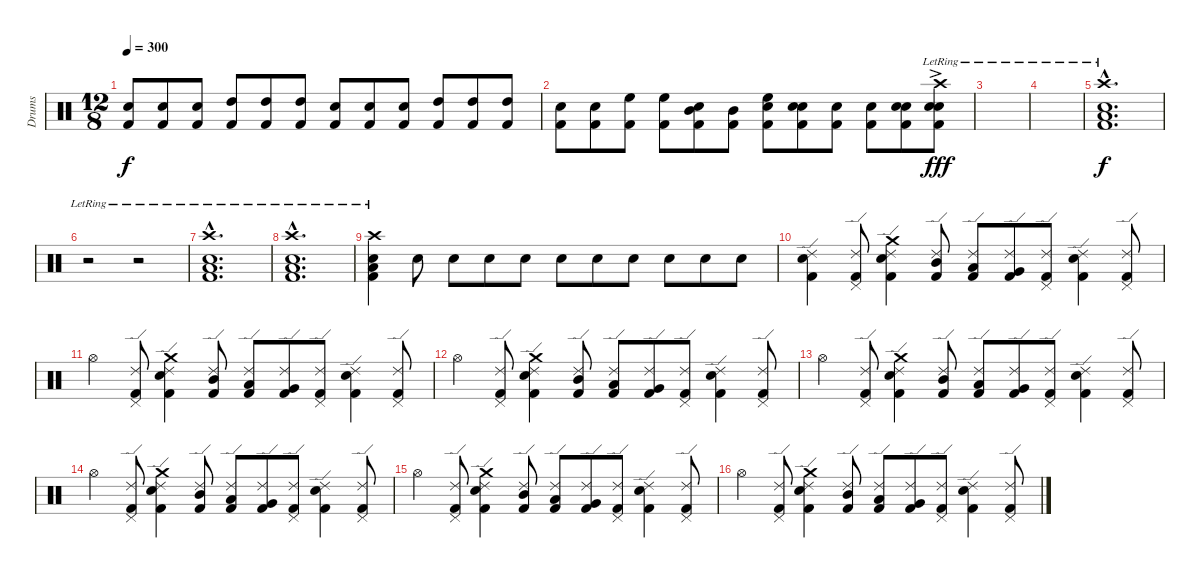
\track ("Drums" "Drums") {instrument percussion}
\staff {score}
\articulation defaults
\ts (12 8)
\tempo 300
\clef neutral
\ks c
("Snare (hit) 2" "Kick (hit) 2").8{dy f} ("Snare (hit) 2" "Kick (hit) 2").8 ("Snare (hit) 2" "Kick (hit) 2").8 ("High Tom (hit)" "Kick (hit) 2").8 ("High Tom (hit)" "Kick (hit) 2").8 ("High Tom (hit)" "Kick (hit) 2").8 ("Snare (hit) 2" "Kick (hit) 2").8 ("Snare (hit) 2" "Kick (hit) 2").8 ("Snare (hit) 2" "Kick (hit) 2").8 ("High Tom (hit)" "Kick (hit) 2").8 ("High Tom (hit)" "Kick (hit) 2").8 ("High Tom (hit)" "Kick (hit) 2").8 |
("Snare (hit) 2" "Kick (hit) 2").8 ("Snare (hit) 2" "Kick (hit) 2").8 ("High Floor Tom (hit)" "Kick (hit) 2").8 ("High Floor Tom (hit)" "Kick (hit) 2").8 ("Snare (hit) 2" "Mid Tom (hit)" "Kick (hit) 2").8 ("Mid Tom (hit)" "Kick (hit) 2").8 ("Snare (hit) 2" "High Floor Tom (hit)" "Kick (hit) 2").8 ("Snare (hit) 2" "Snare (hit) 2" "Kick (hit) 2").8 ("Snare (hit) 2" "Kick (hit) 2").8 ("Snare (hit) 2" "Kick (hit) 2").8 ("Snare (hit) 2" "Snare (hit) 2" "Kick (hit) 2").8 ("Crash high (hit)"{ac lr} "Snare (hit) 2" "Snare (hit) 2" "Kick (hit) 2").8{dy fff} |
|
|
("Crash high (hit)"{hac lr} "Snare (hit) 2"{hac} "Low Tom (hit)"{hac} "Kick (hit) 2"{hac}).1{d dy f} |
r.2 r.2 |
("Crash high (hit)"{hac lr} "Snare (hit) 2"{hac} "Low Tom (hit)"{hac} "Kick (hit) 2"{hac}).1{d} |
("Crash high (hit)"{hac lr} "Snare (hit) 2"{hac} "Low Tom (hit)"{hac} "Kick (hit) 2"{hac}).1{d} |
("Crash high (hit)"{lr} "Snare (hit) 2" "Low Tom (hit)" "Kick (hit) 2").4 "Snare (hit) 2".8 "Snare (hit) 2".8 "Snare (hit) 2".8 "Snare (hit) 2".8 "Snare (hit) 2".8 "Snare (hit) 2".8 "Snare (hit) 2".8 "Snare (hit) 2".8 "Snare (hit) 2".8 "Snare (hit) 2".8 |
("Ride (edge) 2" "Snare (hit) 2" "Kick (hit) 2").4 ("Ride (edge) 2" "Pedal Hi-Hat (hit)" "Kick (hit) 2").8 ("Ride (edge) 2" "Crash medium (hit)" "Snare (hit) 2" "Kick (hit) 2").4 ("Ride (edge) 2" "Mid Tom (hit)" "Kick (hit) 2").8 ("Ride (edge) 2" "Low Tom (hit)" "Kick (hit) 2").8 ("Ride (edge) 2" "Very Low Tom (hit)" "Kick (hit) 2").8 ("Ride (edge) 2" "Pedal Hi-Hat (hit)" "Kick (hit) 2").8 ("Ride (edge) 2" "Snare (hit) 2" "Kick (hit) 2").4 ("Ride (edge) 2" "Pedal Hi-Hat (hit)" "Kick (hit) 2").8 |
"Hi-Hat (open)".4 ("Ride (edge) 2" "Pedal Hi-Hat (hit)" "Kick (hit) 2").8 ("Ride (edge) 2" "Crash medium (hit)" "Snare (hit) 2" "Kick (hit) 2").4 ("Ride (edge) 2" "Mid Tom (hit)" "Kick (hit) 2").8 ("Ride (edge) 2" "Low Tom (hit)" "Kick (hit) 2").8 ("Ride (edge) 2" "Very Low Tom (hit)" "Kick (hit) 2").8 ("Ride (edge) 2" "Pedal Hi-Hat (hit)" "Kick (hit) 2").8 ("Ride (edge) 2" "Snare (hit) 2" "Kick (hit) 2").4 ("Ride (edge) 2" "Pedal Hi-Hat (hit)" "Kick (hit) 2").8 |
"Hi-Hat (open)".4 ("Ride (edge) 2" "Pedal Hi-Hat (hit)" "Kick (hit) 2").8 ("Ride (edge) 2" "Crash medium (hit)" "Snare (hit) 2" "Kick (hit) 2").4 ("Ride (edge) 2" "Mid Tom (hit)" "Kick (hit) 2").8 ("Ride (edge) 2" "Low Tom (hit)" "Kick (hit) 2").8 ("Ride (edge) 2" "Very Low Tom (hit)" "Kick (hit) 2").8 ("Ride (edge) 2" "Pedal Hi-Hat (hit)" "Kick (hit) 2").8 ("Ride (edge) 2" "Snare (hit) 2" "Kick (hit) 2").4 ("Ride (edge) 2" "Pedal Hi-Hat (hit)" "Kick (hit) 2").8 |
"Hi-Hat (open)".4 ("Ride (edge) 2" "Pedal Hi-Hat (hit)" "Kick (hit) 2").8 ("Ride (edge) 2" "Crash medium (hit)" "Snare (hit) 2" "Kick (hit) 2").4 ("Ride (edge) 2" "Mid Tom (hit)" "Kick (hit) 2").8 ("Ride (edge) 2" "Low Tom (hit)" "Kick (hit) 2").8 ("Ride (edge) 2" "Very Low Tom (hit)" "Kick (hit) 2").8 ("Ride (edge) 2" "Pedal Hi-Hat (hit)" "Kick (hit) 2").8 ("Ride (edge) 2" "Snare (hit) 2" "Kick (hit) 2").4 ("Ride (edge) 2" "Pedal Hi-Hat (hit)" "Kick (hit) 2").8 |
"Hi-Hat (open)".4 ("Ride (edge) 2" "Pedal Hi-Hat (hit)" "Kick (hit) 2").8 ("Ride (edge) 2" "Crash medium (hit)" "Snare (hit) 2" "Kick (hit) 2").4 ("Ride (edge) 2" "Mid Tom (hit)" "Kick (hit) 2").8 ("Ride (edge) 2" "Low Tom (hit)" "Kick (hit) 2").8 ("Ride (edge) 2" "Very Low Tom (hit)" "Kick (hit) 2").8 ("Ride (edge) 2" "Pedal Hi-Hat (hit)" "Kick (hit) 2").8 ("Ride (edge) 2" "Snare (hit) 2" "Kick (hit) 2").4 ("Ride (edge) 2" "Pedal Hi-Hat (hit)" "Kick (hit) 2").8 |
"Hi-Hat (open)".4 ("Ride (edge) 2" "Pedal Hi-Hat (hit)" "Kick (hit) 2").8 ("Ride (edge) 2" "Crash medium (hit)" "Snare (hit) 2" "Kick (hit) 2").4 ("Ride (edge) 2" "Mid Tom (hit)" "Kick (hit) 2").8 ("Ride (edge) 2" "Low Tom (hit)" "Kick (hit) 2").8 ("Ride (edge) 2" "Very Low Tom (hit)" "Kick (hit) 2").8 ("Ride (edge) 2" "Pedal Hi-Hat (hit)" "Kick (hit) 2").8 ("Ride (edge) 2" "Snare (hit) 2" "Kick (hit) 2").4 ("Ride (edge) 2" "Pedal Hi-Hat (hit)" "Kick (hit) 2").8 |
"Hi-Hat (open)".4 ("Ride (edge) 2" "Pedal Hi-Hat (hit)" "Kick (hit) 2").8 ("Ride (edge) 2" "Crash medium (hit)" "Snare (hit) 2" "Kick (hit) 2").4 ("Ride (edge) 2" "Mid Tom (hit)" "Kick (hit) 2").8 ("Ride (edge) 2" "Low Tom (hit)" "Kick (hit) 2").8 ("Ride (edge) 2" "Very Low Tom (hit)" "Kick (hit) 2").8 ("Ride (edge) 2" "Pedal Hi-Hat (hit)" "Kick (hit) 2").8 ("Ride (edge) 2" "Snare (hit) 2" "Kick (hit) 2").4 ("Ride (edge) 2" "Pedal Hi-Hat (hit)" "Kick (hit) 2").8
